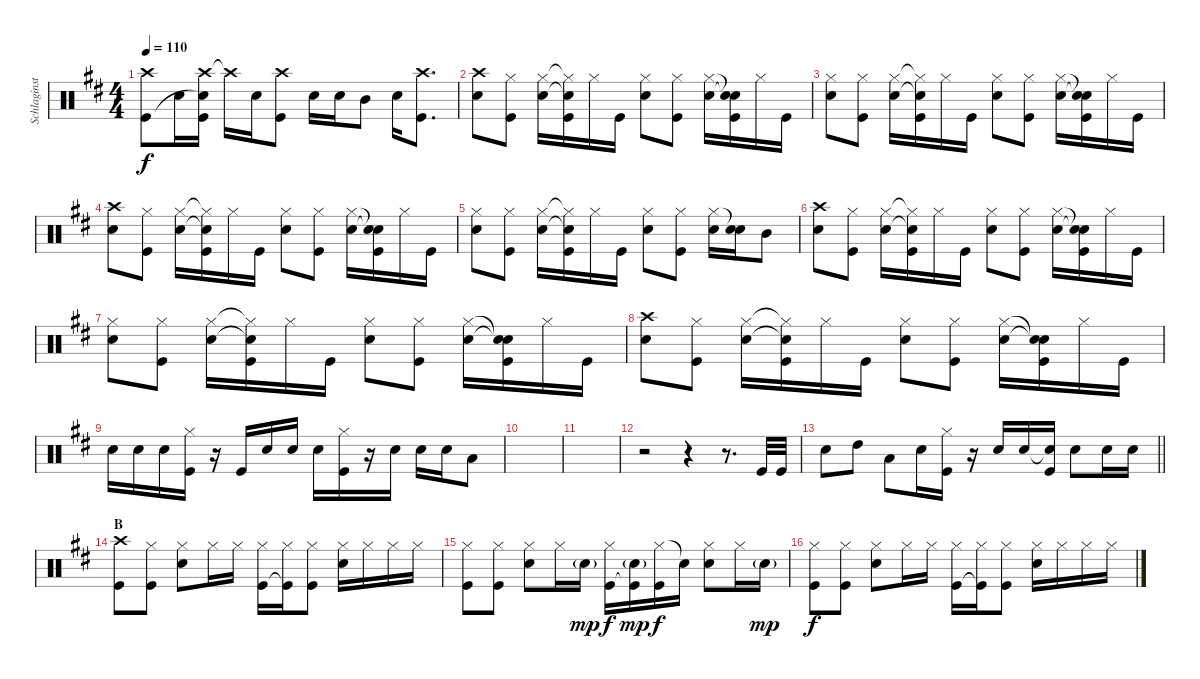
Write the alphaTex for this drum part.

\track ("Schlaginstrumente - Auswahl" "Schlaginst") {instrument percussion}
\staff {score}
\articulation defaults
\ts (4 4)
\tempo 110
\clef neutral
\ks d
("Crash high (hit)" "Kick (hit)").8{dy f} "Snare (hit) 2".16 ("Crash high (hit)" "Snare (hit)"{t} "Kick (hit)").16 "Crash high (hit)"{t}.16 "Snare (hit) 2".16 ("Crash high (hit)" "Kick (hit)").8 "Snare (hit) 2".16 "Snare (hit) 2".16 "Mid Tom (hit)".8 "Snare (hit) 2".16 ("Crash high (hit)" "Kick (hit)").8{d} |
("Crash high (hit)" "Snare (hit) 2").8 ("Hi-Hat (closed)" "Kick (hit)").8 ("Hi-Hat (closed)" "Snare (hit) 2").16 ("Hi-Hat (closed)"{t} "Snare (hit)"{t} "Kick (hit)").16 "Hi-Hat (closed)".16 "Kick (hit)".16 ("Hi-Hat (closed)" "Snare (hit) 2").8 ("Hi-Hat (closed)" "Kick (hit)").8 ("Hi-Hat (closed)" "Snare (hit) 2").16 ("Snare (hit)"{t} "Snare (hit)"{t} "Kick (hit)").16 "Hi-Hat (closed)".16 "Kick (hit)".16 |
("Hi-Hat (closed)" "Snare (hit) 2").8 ("Hi-Hat (closed)" "Kick (hit)").8 ("Hi-Hat (closed)" "Snare (hit) 2").16 ("Hi-Hat (closed)"{t} "Snare (hit)"{t} "Kick (hit)").16 "Hi-Hat (closed)".16 "Kick (hit)".16 ("Hi-Hat (closed)" "Snare (hit) 2").8 ("Hi-Hat (closed)" "Kick (hit)").8 ("Hi-Hat (closed)" "Snare (hit) 2").16 ("Snare (hit)"{t} "Snare (hit)"{t} "Kick (hit)").16 "Hi-Hat (closed)".16 "Kick (hit)".16 |
("Crash high (hit)" "Snare (hit) 2").8 ("Hi-Hat (closed)" "Kick (hit)").8 ("Hi-Hat (closed)" "Snare (hit) 2").16 ("Hi-Hat (closed)"{t} "Snare (hit)"{t} "Kick (hit)").16 "Hi-Hat (closed)".16 "Kick (hit)".16 ("Hi-Hat (closed)" "Snare (hit) 2").8 ("Hi-Hat (closed)" "Kick (hit)").8 ("Hi-Hat (closed)" "Snare (hit) 2").16 ("Snare (hit)"{t} "Snare (hit)"{t} "Kick (hit)").16 "Hi-Hat (closed)".16 "Kick (hit)".16 |
("Hi-Hat (closed)" "Snare (hit) 2").8 ("Hi-Hat (closed)" "Kick (hit)").8 ("Hi-Hat (closed)" "Snare (hit) 2").16 ("Hi-Hat (closed)"{t} "Snare (hit)"{t} "Kick (hit)").16 "Hi-Hat (closed)".16 "Kick (hit)".16 ("Hi-Hat (closed)" "Snare (hit) 2").8 ("Hi-Hat (closed)" "Kick (hit)").8 ("Hi-Hat (closed)" "Snare (hit) 2").16 ("Snare (hit)"{t} "Snare (hit) 2").16 "Mid Tom (hit)".8 |
("Crash high (hit)" "Snare (hit) 2").8 ("Hi-Hat (closed)" "Kick (hit)").8 ("Hi-Hat (closed)" "Snare (hit) 2").16 ("Hi-Hat (closed)"{t} "Snare (hit)"{t} "Kick (hit)").16 "Hi-Hat (closed)".16 "Kick (hit)".16 ("Hi-Hat (closed)" "Snare (hit) 2").8 ("Hi-Hat (closed)" "Kick (hit)").8 ("Hi-Hat (closed)" "Snare (hit) 2").16 ("Snare (hit)"{t} "Snare (hit)"{t} "Kick (hit)").16 "Hi-Hat (closed)".16 "Kick (hit)".16 |
("Hi-Hat (closed)" "Snare (hit) 2").8 ("Hi-Hat (closed)" "Kick (hit)").8 ("Hi-Hat (closed)" "Snare (hit) 2").16 ("Hi-Hat (closed)"{t} "Snare (hit)"{t} "Kick (hit)").16 "Hi-Hat (closed)".16 "Kick (hit)".16 ("Hi-Hat (closed)" "Snare (hit) 2").8 ("Hi-Hat (closed)" "Kick (hit)").8 ("Hi-Hat (closed)" "Snare (hit) 2").16 ("Snare (hit)"{t} "Snare (hit)"{t} "Kick (hit)").16 "Hi-Hat (closed)".16 "Kick (hit)".16 |
("Crash high (hit)" "Snare (hit) 2").8 ("Hi-Hat (closed)" "Kick (hit)").8 ("Hi-Hat (closed)" "Snare (hit) 2").16 ("Hi-Hat (closed)"{t} "Snare (hit)"{t} "Kick (hit)").16 "Hi-Hat (closed)".16 "Kick (hit)".16 ("Hi-Hat (closed)" "Snare (hit) 2").8 ("Hi-Hat (closed)" "Kick (hit)").8 ("Hi-Hat (closed)" "Snare (hit) 2").16 ("Snare (hit)"{t} "Snare (hit)"{t} "Kick (hit)").16 "Hi-Hat (closed)".16 "Kick (hit)".16 |
"Snare (hit) 2".16 "Snare (hit) 2".16 "Snare (hit) 2".16 ("Hi-Hat (closed)" "Kick (hit)").16 r.16 "Kick (hit)".16 "Snare (hit) 2".16 "Snare (hit) 2".16 "Snare (hit) 2".16 ("Hi-Hat (closed)" "Kick (hit)").16 r.16 "Snare (hit) 2".16 "Snare (hit) 2".16 "Snare (hit) 2".16 "Low Tom (hit)".8 |
|
|
r.2 r.4 r.8{d} "Kick (hit)".32 "Kick (hit)".32 |
\barLineRight lightlight "Snare (hit) 2".8 "High Tom (hit)".8 "Low Tom (hit)".8 "Snare (hit) 2".16
("Hi-Hat (closed)" "Kick (hit)").16 r.16 "Snare (hit) 2".16 "Snare (hit) 2".16 ("Snare (hit) 2"{t} "Kick (hit)").16 "Snare (hit) 2".8 "Snare (hit) 2".16 "Snare (hit) 2".16 |
\section ("" "B")
("Crash high (hit)" "Kick (hit)").8 ("Hi-Hat (closed)" "Kick (hit)").8 ("Hi-Hat (closed)" "Snare (hit) 2").8 "Hi-Hat (closed)".16 "Hi-Hat (closed)".16 ("Hi-Hat (closed)" "Kick (hit)").16 ("Hi-Hat (closed)" "Kick (hit)"{t}).16 ("Hi-Hat (closed)" "Kick (hit)").8 ("Hi-Hat (closed)" "Snare (hit) 2").16 "Hi-Hat (closed)".16 "Hi-Hat (closed)".16 "Hi-Hat (closed)".16 |
("Hi-Hat (closed)" "Kick (hit)").8 ("Hi-Hat (closed)" "Kick (hit)").8 ("Hi-Hat (closed)" "Snare (hit) 2").8 "Hi-Hat (closed)".16 "Snare (hit) 2"{g}.16{dy mp} ("Hi-Hat (closed)" "Kick (hit)").16{dy f} ("Snare (hit) 2"{g} "Kick (hit)"{t}).16{dy mp} ("Hi-Hat (closed)" "Kick (hit)").16{dy f} "Snare (hit)"{t}.16 ("Hi-Hat (closed)" "Snare (hit) 2").8 "Hi-Hat (closed)".16 "Snare (hit) 2"{g}.16{dy mp} |
("Hi-Hat (closed)" "Kick (hit)").8{dy f} ("Hi-Hat (closed)" "Kick (hit)").8 ("Hi-Hat (closed)" "Snare (hit) 2").8 "Hi-Hat (closed)".16 "Hi-Hat (closed)".16 ("Hi-Hat (closed)" "Kick (hit)").16 ("Hi-Hat (closed)" "Kick (hit)"{t}).16 ("Hi-Hat (closed)" "Kick (hit)").8 ("Hi-Hat (closed)" "Snare (hit) 2").16 "Hi-Hat (closed)".16 "Hi-Hat (closed)".16 "Hi-Hat (closed)".16
